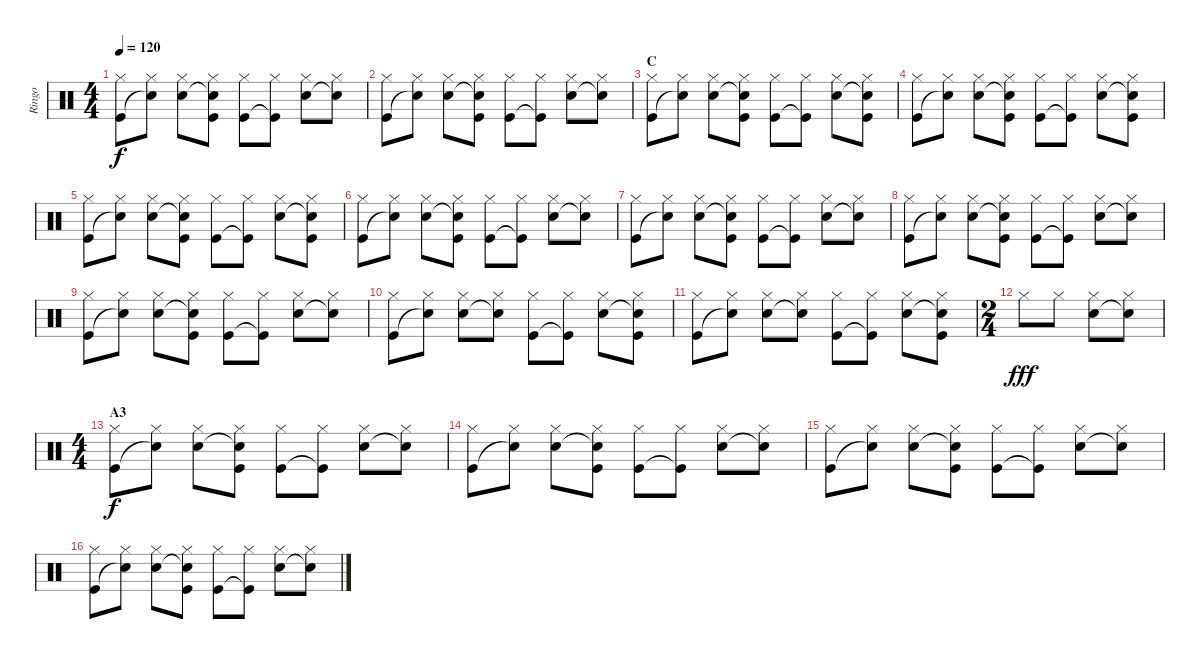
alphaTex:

\track ("Ringo" "Ringo") {instrument percussion}
\staff {score}
\articulation defaults
\ts (4 4)
\tempo 120
\clef neutral
\ks c
("Hi-Hat (closed)" "Kick (hit)").8{dy f} ("Hi-Hat (closed)" "Snare (hit)"{t}).8 ("Hi-Hat (closed)" "Snare (hit) 2").8 ("Hi-Hat (closed)" "Snare (hit)"{t} "Kick (hit)").8 ("Hi-Hat (closed)" "Kick (hit)").8 ("Hi-Hat (closed)" "Kick (hit)"{t}).8 ("Hi-Hat (closed)" "Snare (hit) 2").8 ("Hi-Hat (closed)" "Snare (hit)"{t}).8 |
("Hi-Hat (closed)" "Kick (hit)").8 ("Hi-Hat (closed)" "Snare (hit)"{t}).8 ("Hi-Hat (closed)" "Snare (hit) 2").8 ("Hi-Hat (closed)" "Snare (hit)"{t} "Kick (hit)").8 ("Hi-Hat (closed)" "Kick (hit)").8 ("Hi-Hat (closed)" "Kick (hit)"{t}).8 ("Hi-Hat (closed)" "Snare (hit) 2").8 ("Hi-Hat (closed)" "Snare (hit)"{t}).8 |
\section ("" "C")
("Hi-Hat (closed)" "Kick (hit)").8 ("Hi-Hat (closed)" "Snare (hit)"{t}).8 ("Hi-Hat (closed)" "Snare (hit) 2").8 ("Hi-Hat (closed)" "Snare (hit)"{t} "Kick (hit)").8 ("Hi-Hat (closed)" "Kick (hit)").8 ("Hi-Hat (closed)" "Kick (hit)"{t}).8 ("Hi-Hat (closed)" "Snare (hit) 2").8 ("Hi-Hat (closed)" "Snare (hit)"{t} "Kick (hit)").8 |
("Hi-Hat (closed)" "Kick (hit)").8 ("Hi-Hat (closed)" "Snare (hit)"{t}).8 ("Hi-Hat (closed)" "Snare (hit) 2").8 ("Hi-Hat (closed)" "Snare (hit)"{t} "Kick (hit)").8 ("Hi-Hat (closed)" "Kick (hit)").8 ("Hi-Hat (closed)" "Kick (hit)"{t}).8 ("Hi-Hat (closed)" "Snare (hit) 2").8 ("Hi-Hat (closed)" "Snare (hit)"{t} "Kick (hit)").8 |
("Hi-Hat (closed)" "Kick (hit)").8 ("Hi-Hat (closed)" "Snare (hit)"{t}).8 ("Hi-Hat (closed)" "Snare (hit) 2").8 ("Hi-Hat (closed)" "Snare (hit)"{t} "Kick (hit)").8 ("Hi-Hat (closed)" "Kick (hit)").8 ("Hi-Hat (closed)" "Kick (hit)"{t}).8 ("Hi-Hat (closed)" "Snare (hit) 2").8 ("Hi-Hat (closed)" "Snare (hit)"{t} "Kick (hit)").8 |
("Hi-Hat (closed)" "Kick (hit)").8 ("Hi-Hat (closed)" "Snare (hit)"{t}).8 ("Hi-Hat (closed)" "Snare (hit) 2").8 ("Hi-Hat (closed)" "Snare (hit)"{t} "Kick (hit)").8 ("Hi-Hat (closed)" "Kick (hit)").8 ("Hi-Hat (closed)" "Kick (hit)"{t}).8 ("Hi-Hat (closed)" "Snare (hit) 2").8 ("Hi-Hat (closed)" "Snare (hit)"{t}).8 |
("Hi-Hat (closed)" "Kick (hit)").8 ("Hi-Hat (closed)" "Snare (hit)"{t}).8 ("Hi-Hat (closed)" "Snare (hit) 2").8 ("Hi-Hat (closed)" "Snare (hit)"{t} "Kick (hit)").8 ("Hi-Hat (closed)" "Kick (hit)").8 ("Hi-Hat (closed)" "Kick (hit)"{t}).8 ("Hi-Hat (closed)" "Snare (hit) 2").8 ("Hi-Hat (closed)" "Snare (hit)"{t}).8 |
("Hi-Hat (closed)" "Kick (hit)").8 ("Hi-Hat (closed)" "Snare (hit)"{t}).8 ("Hi-Hat (closed)" "Snare (hit) 2").8 ("Hi-Hat (closed)" "Snare (hit)"{t} "Kick (hit)").8 ("Hi-Hat (closed)" "Kick (hit)").8 ("Hi-Hat (closed)" "Kick (hit)"{t}).8 ("Hi-Hat (closed)" "Snare (hit) 2").8 ("Hi-Hat (closed)" "Snare (hit)"{t}).8 |
("Hi-Hat (closed)" "Kick (hit)").8 ("Hi-Hat (closed)" "Snare (hit)"{t}).8 ("Hi-Hat (closed)" "Snare (hit) 2").8 ("Hi-Hat (closed)" "Snare (hit)"{t} "Kick (hit)").8 ("Hi-Hat (closed)" "Kick (hit)").8 ("Hi-Hat (closed)" "Kick (hit)"{t}).8 ("Hi-Hat (closed)" "Snare (hit) 2").8 ("Hi-Hat (closed)" "Snare (hit)"{t}).8 |
("Hi-Hat (closed)" "Kick (hit)").8 ("Hi-Hat (closed)" "Snare (hit)"{t}).8 ("Hi-Hat (closed)" "Snare (hit) 2").8 ("Hi-Hat (closed)" "Snare (hit)"{t}).8 ("Hi-Hat (closed)" "Kick (hit)").8 ("Hi-Hat (closed)" "Kick (hit)"{t}).8 ("Hi-Hat (closed)" "Snare (hit) 2").8 ("Hi-Hat (closed)" "Snare (hit)"{t} "Kick (hit)").8 |
("Hi-Hat (closed)" "Kick (hit)").8 ("Hi-Hat (closed)" "Snare (hit)"{t}).8 ("Hi-Hat (closed)" "Snare (hit) 2").8 ("Hi-Hat (closed)" "Snare (hit)"{t}).8 ("Hi-Hat (closed)" "Kick (hit)").8 ("Hi-Hat (closed)" "Kick (hit)"{t}).8 ("Hi-Hat (closed)" "Snare (hit) 2").8 ("Hi-Hat (closed)" "Snare (hit)"{t} "Kick (hit)").8 |
\ts (2 4)
"Hi-Hat (closed)".8{dy fff} "Hi-Hat (closed)".8 ("Hi-Hat (closed)" "Snare (hit) 2").8 ("Hi-Hat (closed)" "Snare (hit)"{t}).8 |
\ts (4 4)
\section ("" "A3")
("Hi-Hat (closed)" "Kick (hit)").8{dy f} ("Hi-Hat (closed)" "Snare (hit)"{t}).8 ("Hi-Hat (closed)" "Snare (hit) 2").8 ("Hi-Hat (closed)" "Snare (hit)"{t} "Kick (hit)").8 ("Hi-Hat (closed)" "Kick (hit)").8 ("Hi-Hat (closed)" "Kick (hit)"{t}).8 ("Hi-Hat (closed)" "Snare (hit) 2").8 ("Hi-Hat (closed)" "Snare (hit)"{t}).8 |
("Hi-Hat (closed)" "Kick (hit)").8 ("Hi-Hat (closed)" "Snare (hit)"{t}).8 ("Hi-Hat (closed)" "Snare (hit) 2").8 ("Hi-Hat (closed)" "Snare (hit)"{t} "Kick (hit)").8 ("Hi-Hat (closed)" "Kick (hit)").8 ("Hi-Hat (closed)" "Kick (hit)"{t}).8 ("Hi-Hat (closed)" "Snare (hit) 2").8 ("Hi-Hat (closed)" "Snare (hit)"{t}).8 |
("Hi-Hat (closed)" "Kick (hit)").8 ("Hi-Hat (closed)" "Snare (hit)"{t}).8 ("Hi-Hat (closed)" "Snare (hit) 2").8 ("Hi-Hat (closed)" "Snare (hit)"{t} "Kick (hit)").8 ("Hi-Hat (closed)" "Kick (hit)").8 ("Hi-Hat (closed)" "Kick (hit)"{t}).8 ("Hi-Hat (closed)" "Snare (hit) 2").8 ("Hi-Hat (closed)" "Snare (hit)"{t}).8 |
("Hi-Hat (closed)" "Kick (hit)").8 ("Hi-Hat (closed)" "Snare (hit)"{t}).8 ("Hi-Hat (closed)" "Snare (hit) 2").8 ("Hi-Hat (closed)" "Snare (hit)"{t} "Kick (hit)").8 ("Hi-Hat (closed)" "Kick (hit)").8 ("Hi-Hat (closed)" "Kick (hit)"{t}).8 ("Hi-Hat (closed)" "Snare (hit) 2").8 ("Hi-Hat (closed)" "Snare (hit)"{t}).8
